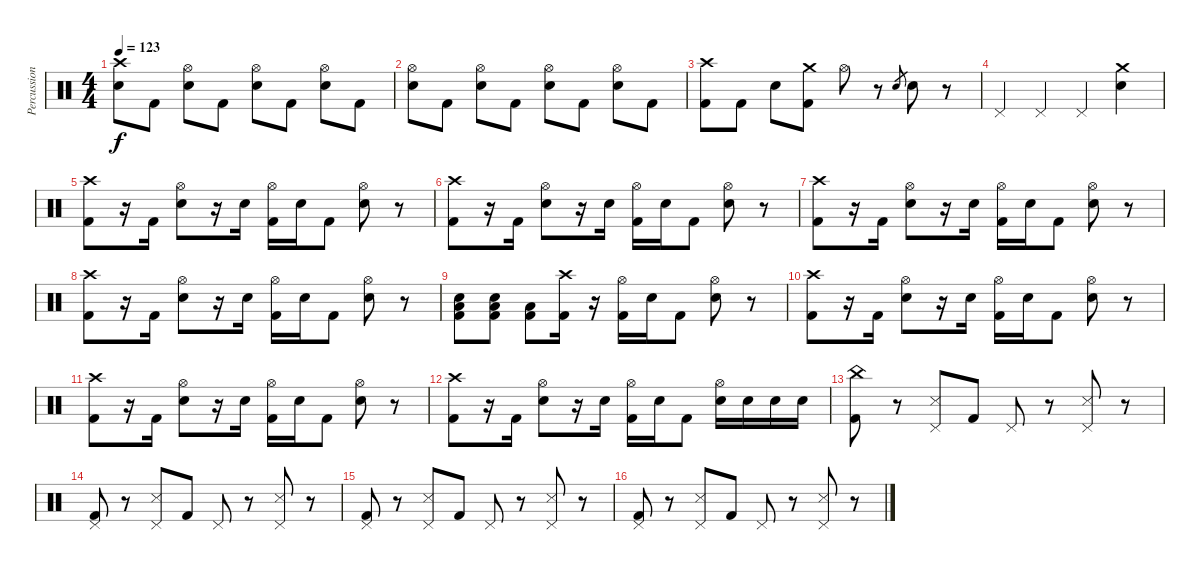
\track ("Percussioni" "Percussion") {instrument percussion}
\staff {score}
\articulation defaults
\ts (4 4)
\tempo 123
\clef neutral
\ks c
("Crash high (hit)" "Electric Snare (hit)").8{dy f} "Kick (hit) 2".8 ("Hi-Hat (open)" "Electric Snare (hit)").8 "Kick (hit) 2".8 ("Hi-Hat (open)" "Electric Snare (hit)").8 "Kick (hit) 2".8 ("Hi-Hat (open)" "Electric Snare (hit)").8 "Kick (hit) 2".8 |
("Hi-Hat (open)" "Electric Snare (hit)").8 "Kick (hit) 2".8 ("Hi-Hat (open)" "Electric Snare (hit)").8 "Kick (hit) 2".8 ("Hi-Hat (open)" "Electric Snare (hit)").8 "Kick (hit) 2".8 ("Hi-Hat (open)" "Electric Snare (hit)").8 "Kick (hit) 2".8 |
("Crash high (hit)" "Kick (hit) 2").8 "Kick (hit) 2".8 "Electric Snare (hit)".8 ("Crash medium (hit)" "Kick (hit) 2").8 "Hi-Hat (open)".8 r.8 "Electric Snare (hit)".8{gr} "Electric Snare (hit)".8 r.8 |
"Pedal Hi-Hat (hit)".4 "Pedal Hi-Hat (hit)".4 "Pedal Hi-Hat (hit)".4 ("Crash medium (hit)" "Electric Snare (hit)").4 |
("Crash high (hit)" "Kick (hit) 2").8 r.16 "Kick (hit) 2".16 ("Hi-Hat (open)" "Electric Snare (hit)").8 r.16 "Electric Snare (hit)".16 ("Hi-Hat (open)" "Kick (hit) 2").16 "Electric Snare (hit)".16 "Kick (hit) 2".8 ("Hi-Hat (open)" "Electric Snare (hit)").8 r.8 |
("Crash high (hit)" "Kick (hit) 2").8 r.16 "Kick (hit) 2".16 ("Hi-Hat (open)" "Electric Snare (hit)").8 r.16 "Electric Snare (hit)".16 ("Hi-Hat (open)" "Kick (hit) 2").16 "Electric Snare (hit)".16 "Kick (hit) 2".8 ("Hi-Hat (open)" "Electric Snare (hit)").8 r.8 |
("Crash high (hit)" "Kick (hit) 2").8 r.16 "Kick (hit) 2".16 ("Hi-Hat (open)" "Electric Snare (hit)").8 r.16 "Electric Snare (hit)".16 ("Hi-Hat (open)" "Kick (hit) 2").16 "Electric Snare (hit)".16 "Kick (hit) 2".8 ("Hi-Hat (open)" "Electric Snare (hit)").8 r.8 |
("Crash high (hit)" "Kick (hit) 2").8 r.16 "Kick (hit) 2".16 ("Hi-Hat (open)" "Electric Snare (hit)").8 r.16 "Electric Snare (hit)".16 ("Hi-Hat (open)" "Kick (hit) 2").16 "Electric Snare (hit)".16 "Kick (hit) 2".8 ("Hi-Hat (open)" "Electric Snare (hit)").8 r.8 |
("Kick (hit) 2" "Low Floor Tom (hit)" "Electric Snare (hit)").8 ("Kick (hit) 2" "Low Floor Tom (hit)" "Electric Snare (hit)").8 ("Low Tom (hit)" "Kick (hit) 2").8 ("Crash high (hit)" "Kick (hit) 2").16 r.16 ("Hi-Hat (open)" "Kick (hit) 2").16 "Electric Snare (hit)".16 "Kick (hit) 2".8 ("Hi-Hat (open)" "Electric Snare (hit)").8 r.8 |
("Crash high (hit)" "Kick (hit) 2").8 r.16 "Kick (hit) 2".16 ("Hi-Hat (open)" "Electric Snare (hit)").8 r.16 "Electric Snare (hit)".16 ("Hi-Hat (open)" "Kick (hit) 2").16 "Electric Snare (hit)".16 "Kick (hit) 2".8 ("Hi-Hat (open)" "Electric Snare (hit)").8 r.8 |
("Crash high (hit)" "Kick (hit) 2").8 r.16 "Kick (hit) 2".16 ("Hi-Hat (open)" "Electric Snare (hit)").8 r.16 "Electric Snare (hit)".16 ("Hi-Hat (open)" "Kick (hit) 2").16 "Electric Snare (hit)".16 "Kick (hit) 2".8 ("Hi-Hat (open)" "Electric Snare (hit)").8 r.8 |
("Crash high (hit)" "Kick (hit) 2").8 r.16 "Kick (hit) 2".16 ("Hi-Hat (open)" "Electric Snare (hit)").8 r.16 "Electric Snare (hit)".16 ("Hi-Hat (open)" "Kick (hit) 2").16 "Electric Snare (hit)".16 "Kick (hit) 2".8 ("Hi-Hat (open)" "Electric Snare (hit)").16 "Electric Snare (hit)".16 "Electric Snare (hit)".16 "Electric Snare (hit)".16 |
("China (hit)" "Kick (hit) 2").8 r.8 ("Pedal Hi-Hat (hit)" "Snare (side stick) 3").8 "Kick (hit) 2".8 "Pedal Hi-Hat (hit)".8 r.8 ("Pedal Hi-Hat (hit)" "Snare (side stick) 3").8 r.8 |
("Pedal Hi-Hat (hit)" "Kick (hit) 2").8 r.8 ("Pedal Hi-Hat (hit)" "Snare (side stick) 3").8 "Kick (hit) 2".8 "Pedal Hi-Hat (hit)".8 r.8 ("Pedal Hi-Hat (hit)" "Snare (side stick) 3").8 r.8 |
("Pedal Hi-Hat (hit)" "Kick (hit) 2").8 r.8 ("Pedal Hi-Hat (hit)" "Snare (side stick) 3").8 "Kick (hit) 2".8 "Pedal Hi-Hat (hit)".8 r.8 ("Pedal Hi-Hat (hit)" "Snare (side stick) 3").8 r.8 |
("Pedal Hi-Hat (hit)" "Kick (hit) 2").8 r.8 ("Pedal Hi-Hat (hit)" "Snare (side stick) 3").8 "Kick (hit) 2".8 "Pedal Hi-Hat (hit)".8 r.8 ("Pedal Hi-Hat (hit)" "Snare (side stick) 3").8 r.8
